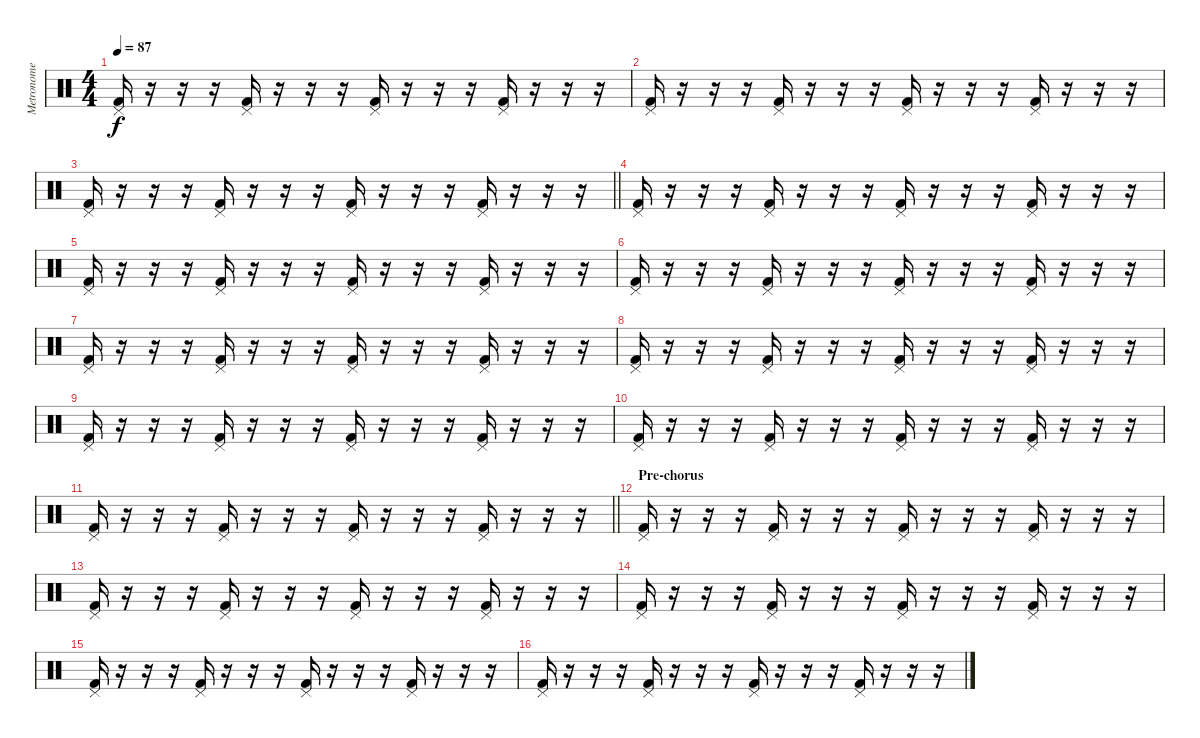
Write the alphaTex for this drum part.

\track ("Metronome" "Metronome") {mute instrument percussion}
\staff {score}
\articulation defaults
\ts (4 4)
\tempo 87
\clef neutral
\ks c
("Pedal Hi-Hat (hit)" "Kick (hit) 2").16{dy f} r.16 r.16 r.16 ("Pedal Hi-Hat (hit)" "Kick (hit) 2").16 r.16 r.16 r.16 ("Pedal Hi-Hat (hit)" "Kick (hit) 2").16 r.16 r.16 r.16 ("Pedal Hi-Hat (hit)" "Kick (hit) 2").16 r.16 r.16 r.16 |
("Pedal Hi-Hat (hit)" "Kick (hit) 2").16 r.16 r.16 r.16 ("Pedal Hi-Hat (hit)" "Kick (hit) 2").16 r.16 r.16 r.16 ("Pedal Hi-Hat (hit)" "Kick (hit) 2").16 r.16 r.16 r.16 ("Pedal Hi-Hat (hit)" "Kick (hit) 2").16 r.16 r.16 r.16 |
\barLineRight lightlight
("Pedal Hi-Hat (hit)" "Kick (hit) 2").16 r.16 r.16 r.16 ("Pedal Hi-Hat (hit)" "Kick (hit) 2").16 r.16 r.16 r.16 ("Pedal Hi-Hat (hit)" "Kick (hit) 2").16 r.16 r.16 r.16 ("Pedal Hi-Hat (hit)" "Kick (hit) 2").16 r.16 r.16 r.16 |
("Pedal Hi-Hat (hit)" "Kick (hit) 2").16 r.16 r.16 r.16 ("Pedal Hi-Hat (hit)" "Kick (hit) 2").16 r.16 r.16 r.16 ("Pedal Hi-Hat (hit)" "Kick (hit) 2").16 r.16 r.16 r.16 ("Pedal Hi-Hat (hit)" "Kick (hit) 2").16 r.16 r.16 r.16 |
("Pedal Hi-Hat (hit)" "Kick (hit) 2").16 r.16 r.16 r.16 ("Pedal Hi-Hat (hit)" "Kick (hit) 2").16 r.16 r.16 r.16 ("Pedal Hi-Hat (hit)" "Kick (hit) 2").16 r.16 r.16 r.16 ("Pedal Hi-Hat (hit)" "Kick (hit) 2").16 r.16 r.16 r.16 |
("Pedal Hi-Hat (hit)" "Kick (hit) 2").16 r.16 r.16 r.16 ("Pedal Hi-Hat (hit)" "Kick (hit) 2").16 r.16 r.16 r.16 ("Pedal Hi-Hat (hit)" "Kick (hit) 2").16 r.16 r.16 r.16 ("Pedal Hi-Hat (hit)" "Kick (hit) 2").16 r.16 r.16 r.16 |
("Pedal Hi-Hat (hit)" "Kick (hit) 2").16 r.16 r.16 r.16 ("Pedal Hi-Hat (hit)" "Kick (hit) 2").16 r.16 r.16 r.16 ("Pedal Hi-Hat (hit)" "Kick (hit) 2").16 r.16 r.16 r.16 ("Pedal Hi-Hat (hit)" "Kick (hit) 2").16 r.16 r.16 r.16 |
("Pedal Hi-Hat (hit)" "Kick (hit) 2").16 r.16 r.16 r.16 ("Pedal Hi-Hat (hit)" "Kick (hit) 2").16 r.16 r.16 r.16 ("Pedal Hi-Hat (hit)" "Kick (hit) 2").16 r.16 r.16 r.16 ("Pedal Hi-Hat (hit)" "Kick (hit) 2").16 r.16 r.16 r.16 |
("Pedal Hi-Hat (hit)" "Kick (hit) 2").16 r.16 r.16 r.16 ("Pedal Hi-Hat (hit)" "Kick (hit) 2").16 r.16 r.16 r.16 ("Pedal Hi-Hat (hit)" "Kick (hit) 2").16 r.16 r.16 r.16 ("Pedal Hi-Hat (hit)" "Kick (hit) 2").16 r.16 r.16 r.16 |
("Pedal Hi-Hat (hit)" "Kick (hit) 2").16 r.16 r.16 r.16 ("Pedal Hi-Hat (hit)" "Kick (hit) 2").16 r.16 r.16 r.16 ("Pedal Hi-Hat (hit)" "Kick (hit) 2").16 r.16 r.16 r.16 ("Pedal Hi-Hat (hit)" "Kick (hit) 2").16 r.16 r.16 r.16 |
\barLineRight lightlight
("Pedal Hi-Hat (hit)" "Kick (hit) 2").16 r.16 r.16 r.16 ("Pedal Hi-Hat (hit)" "Kick (hit) 2").16 r.16 r.16 r.16 ("Pedal Hi-Hat (hit)" "Kick (hit) 2").16 r.16 r.16 r.16 ("Pedal Hi-Hat (hit)" "Kick (hit) 2").16 r.16 r.16 r.16 |
\section ("" "Pre-chorus")
("Pedal Hi-Hat (hit)" "Kick (hit) 2").16 r.16 r.16 r.16 ("Pedal Hi-Hat (hit)" "Kick (hit) 2").16 r.16 r.16 r.16 ("Pedal Hi-Hat (hit)" "Kick (hit) 2").16 r.16 r.16 r.16 ("Pedal Hi-Hat (hit)" "Kick (hit) 2").16 r.16 r.16 r.16 |
("Pedal Hi-Hat (hit)" "Kick (hit) 2").16 r.16 r.16 r.16 ("Pedal Hi-Hat (hit)" "Kick (hit) 2").16 r.16 r.16 r.16 ("Pedal Hi-Hat (hit)" "Kick (hit) 2").16 r.16 r.16 r.16 ("Pedal Hi-Hat (hit)" "Kick (hit) 2").16 r.16 r.16 r.16 |
("Pedal Hi-Hat (hit)" "Kick (hit) 2").16 r.16 r.16 r.16 ("Pedal Hi-Hat (hit)" "Kick (hit) 2").16 r.16 r.16 r.16 ("Pedal Hi-Hat (hit)" "Kick (hit) 2").16 r.16 r.16 r.16 ("Pedal Hi-Hat (hit)" "Kick (hit) 2").16 r.16 r.16 r.16 |
("Pedal Hi-Hat (hit)" "Kick (hit) 2").16 r.16 r.16 r.16 ("Pedal Hi-Hat (hit)" "Kick (hit) 2").16 r.16 r.16 r.16 ("Pedal Hi-Hat (hit)" "Kick (hit) 2").16 r.16 r.16 r.16 ("Pedal Hi-Hat (hit)" "Kick (hit) 2").16 r.16 r.16 r.16 |
("Pedal Hi-Hat (hit)" "Kick (hit) 2").16 r.16 r.16 r.16 ("Pedal Hi-Hat (hit)" "Kick (hit) 2").16 r.16 r.16 r.16 ("Pedal Hi-Hat (hit)" "Kick (hit) 2").16 r.16 r.16 r.16 ("Pedal Hi-Hat (hit)" "Kick (hit) 2").16 r.16 r.16 r.16
